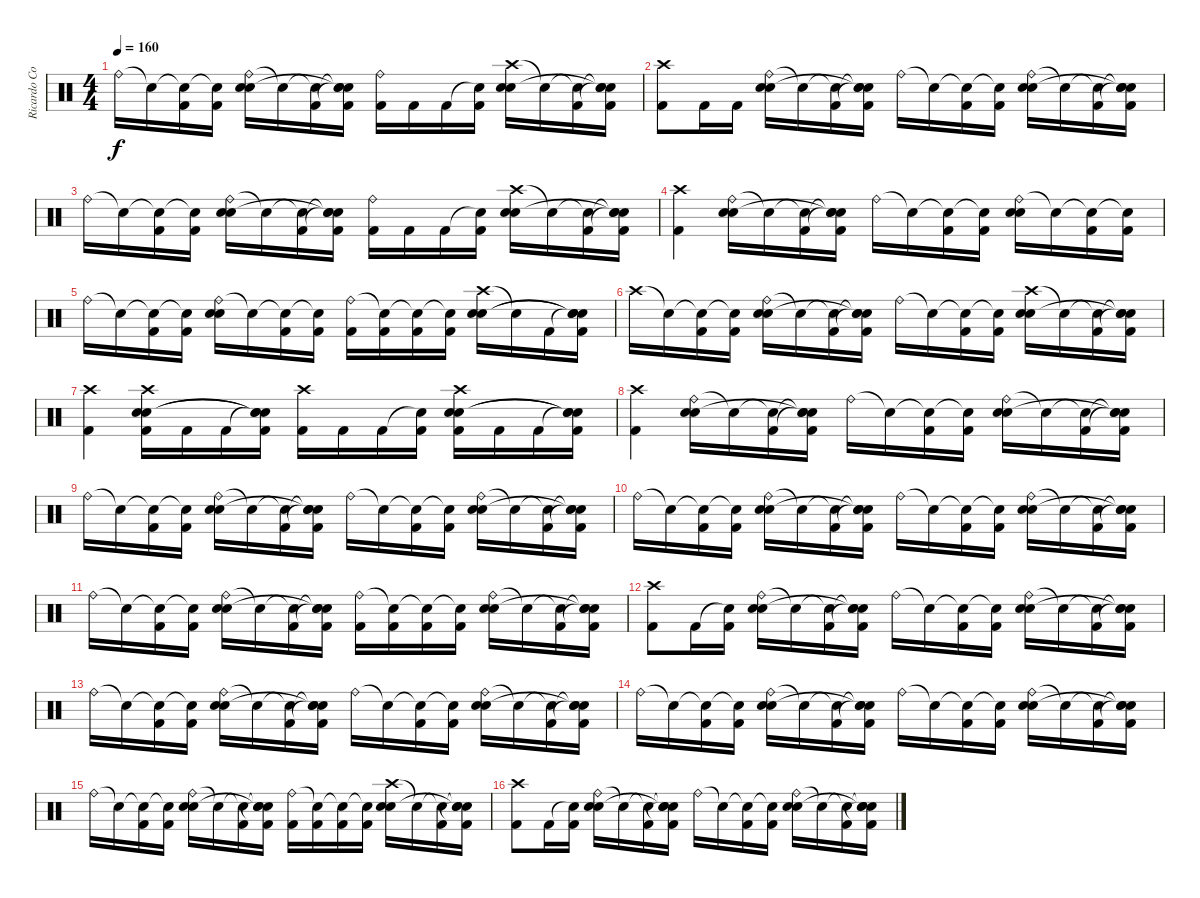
\track ("Ricardo Confessori" "Ricardo Co") {instrument percussion}
\staff {score}
\articulation defaults
\ts (4 4)
\tempo 160
\clef neutral
\ks c "Ride (bell)".16{dy f} "Snare (hit)"{t}.16
("Snare (hit)"{t} "Kick (hit) 2").16 ("Snare (hit)"{t} "Kick (hit) 2").16 ("Ride (bell)" "Electric Snare (hit)" "Snare (hit) 2").16 "Snare (hit)"{t}.16 ("Snare (hit)"{t} "Kick (hit) 2").16 ("Snare (hit)"{t} "Snare (hit)"{t} "Snare (hit)"{t} "Kick (hit) 2").16 ("Ride (bell)" "Kick (hit) 2").16 "Kick (hit) 2".16 "Kick (hit) 2".16 ("Snare (hit)"{t} "Kick (hit) 2").16 ("Crash high (hit)" "Electric Snare (hit)" "Snare (hit) 2").16 "Snare (hit)"{t}.16 ("Snare (hit)"{t} "Kick (hit) 2").16 ("Snare (hit)"{t} "Snare (hit)"{t} "Snare (hit)"{t} "Kick (hit) 2").16 |
("Crash high (hit)" "Kick (hit) 2").8 "Kick (hit) 2".16 "Kick (hit) 2".16 ("Ride (bell)" "Electric Snare (hit)" "Snare (hit) 2").16 "Snare (hit)"{t}.16 ("Snare (hit)"{t} "Kick (hit) 2").16 ("Snare (hit)"{t} "Snare (hit)"{t} "Snare (hit)"{t} "Kick (hit) 2").16 "Ride (bell)".16 "Snare (hit)"{t}.16 ("Snare (hit)"{t} "Kick (hit) 2").16 ("Snare (hit)"{t} "Kick (hit) 2").16 ("Ride (bell)" "Electric Snare (hit)" "Snare (hit) 2").16 "Snare (hit)"{t}.16 ("Snare (hit)"{t} "Kick (hit) 2").16 ("Snare (hit)"{t} "Snare (hit)"{t} "Snare (hit)"{t} "Kick (hit) 2").16 |
"Ride (bell)".16 "Snare (hit)"{t}.16 ("Snare (hit)"{t} "Kick (hit) 2").16 ("Snare (hit)"{t} "Kick (hit) 2").16 ("Ride (bell)" "Electric Snare (hit)" "Snare (hit) 2").16 "Snare (hit)"{t}.16 ("Snare (hit)"{t} "Kick (hit) 2").16 ("Snare (hit)"{t} "Snare (hit)"{t} "Snare (hit)"{t} "Kick (hit) 2").16 ("Ride (bell)" "Kick (hit) 2").16 "Kick (hit) 2".16 "Kick (hit) 2".16 ("Snare (hit)"{t} "Kick (hit) 2").16 ("Crash high (hit)" "Electric Snare (hit)" "Snare (hit) 2").16 "Snare (hit)"{t}.16 ("Snare (hit)"{t} "Kick (hit) 2").16 ("Snare (hit)"{t} "Snare (hit)"{t} "Snare (hit)"{t} "Kick (hit) 2").16 |
("Crash high (hit)" "Kick (hit) 2").4 ("Ride (bell)" "Electric Snare (hit)" "Snare (hit) 2").16 "Snare (hit)"{t}.16 ("Snare (hit)"{t} "Kick (hit) 2").16 ("Snare (hit)"{t} "Snare (hit)"{t} "Snare (hit)"{t} "Kick (hit) 2").16 "Ride (bell)".16 "Snare (hit)"{t}.16 ("Snare (hit)"{t} "Kick (hit) 2").16 ("Snare (hit)"{t} "Kick (hit) 2").16 ("Ride (bell)" "Electric Snare (hit)" "Snare (hit) 2").16 "Snare (hit)"{t}.16 ("Snare (hit)"{t} "Kick (hit) 2").16 ("Snare (hit)"{t} "Kick (hit) 2").16 |
"Ride (bell)".16 "Snare (hit)"{t}.16 ("Snare (hit)"{t} "Kick (hit) 2").16 ("Snare (hit)"{t} "Kick (hit) 2").16 ("Ride (bell)" "Electric Snare (hit)" "Snare (hit) 2").16 "Snare (hit)"{t}.16 ("Snare (hit)"{t} "Kick (hit) 2").16 ("Snare (hit)"{t} "Kick (hit) 2").16 ("Ride (bell)" "Kick (hit) 2").16 ("Snare (hit)"{t} "Kick (hit) 2").16 ("Snare (hit)"{t} "Kick (hit) 2").16 ("Snare (hit)"{t} "Kick (hit) 2").16 ("Crash high (hit)" "Electric Snare (hit)" "Snare (hit) 2").16 "Snare (hit)"{t}.16 "Kick (hit) 2".16 ("Snare (hit)"{t} "Snare (hit)"{t} "Snare (hit)"{t} "Kick (hit) 2").16 |
"Crash high (hit)".16 "Snare (hit)"{t}.16 ("Snare (hit)"{t} "Kick (hit) 2").16 ("Snare (hit)"{t} "Kick (hit) 2").16 ("Ride (bell)" "Electric Snare (hit)" "Snare (hit) 2").16 "Snare (hit)"{t}.16 ("Snare (hit)"{t} "Kick (hit) 2").16 ("Snare (hit)"{t} "Snare (hit)"{t} "Snare (hit)"{t} "Kick (hit) 2").16 "Ride (bell)".16 "Snare (hit)"{t}.16 ("Snare (hit)"{t} "Kick (hit) 2").16 ("Snare (hit)"{t} "Kick (hit) 2").16 ("Crash high (hit)" "Electric Snare (hit)" "Snare (hit) 2").16 "Snare (hit)"{t}.16 ("Snare (hit)"{t} "Kick (hit) 2").16 ("Snare (hit)"{t} "Snare (hit)"{t} "Snare (hit)"{t} "Kick (hit) 2").16 |
("Crash high (hit)" "Kick (hit) 2").4 ("Crash high (hit)" "Electric Snare (hit)" "Snare (hit) 2" "Kick (hit) 2").16 "Kick (hit) 2".16 "Kick (hit) 2".16 ("Snare (hit)"{t} "Snare (hit)"{t} "Snare (hit)"{t} "Kick (hit) 2").16 ("Crash high (hit)" "Kick (hit) 2").16 "Kick (hit) 2".16 "Kick (hit) 2".16 ("Snare (hit)"{t} "Kick (hit) 2").16 ("Crash high (hit)" "Electric Snare (hit)" "Snare (hit) 2" "Kick (hit) 2").16 "Kick (hit) 2".16 "Kick (hit) 2".16 ("Snare (hit)"{t} "Snare (hit)"{t} "Snare (hit)"{t} "Kick (hit) 2").16 |
("Crash high (hit)" "Kick (hit) 2").4 ("Ride (bell)" "Electric Snare (hit)" "Snare (hit) 2").16 "Snare (hit)"{t}.16 ("Snare (hit)"{t} "Kick (hit) 2").16 ("Snare (hit)"{t} "Snare (hit)"{t} "Snare (hit)"{t} "Kick (hit) 2").16 "Ride (bell)".16 "Snare (hit)"{t}.16 ("Snare (hit)"{t} "Kick (hit) 2").16 ("Snare (hit)"{t} "Kick (hit) 2").16 ("Ride (bell)" "Electric Snare (hit)" "Snare (hit) 2").16 "Snare (hit)"{t}.16 ("Snare (hit)"{t} "Kick (hit) 2").16 ("Snare (hit)"{t} "Snare (hit)"{t} "Snare (hit)"{t} "Kick (hit) 2").16 |
"Ride (bell)".16 "Snare (hit)"{t}.16 ("Snare (hit)"{t} "Kick (hit) 2").16 ("Snare (hit)"{t} "Kick (hit) 2").16 ("Ride (bell)" "Electric Snare (hit)" "Snare (hit) 2").16 "Snare (hit)"{t}.16 ("Snare (hit)"{t} "Kick (hit) 2").16 ("Snare (hit)"{t} "Snare (hit)"{t} "Snare (hit)"{t} "Kick (hit) 2").16 "Ride (bell)".16 "Snare (hit)"{t}.16 ("Snare (hit)"{t} "Kick (hit) 2").16 ("Snare (hit)"{t} "Kick (hit) 2").16 ("Ride (bell)" "Electric Snare (hit)" "Snare (hit) 2").16 "Snare (hit)"{t}.16 ("Snare (hit)"{t} "Kick (hit) 2").16 ("Snare (hit)"{t} "Snare (hit)"{t} "Snare (hit)"{t} "Kick (hit) 2").16 |
"Ride (bell)".16 "Snare (hit)"{t}.16 ("Snare (hit)"{t} "Kick (hit) 2").16 ("Snare (hit)"{t} "Kick (hit) 2").16 ("Ride (bell)" "Electric Snare (hit)" "Snare (hit) 2").16 "Snare (hit)"{t}.16 ("Snare (hit)"{t} "Kick (hit) 2").16 ("Snare (hit)"{t} "Snare (hit)"{t} "Snare (hit)"{t} "Kick (hit) 2").16 "Ride (bell)".16 "Snare (hit)"{t}.16 ("Snare (hit)"{t} "Kick (hit) 2").16 ("Snare (hit)"{t} "Kick (hit) 2").16 ("Ride (bell)" "Electric Snare (hit)" "Snare (hit) 2").16 "Snare (hit)"{t}.16 ("Snare (hit)"{t} "Kick (hit) 2").16 ("Snare (hit)"{t} "Snare (hit)"{t} "Snare (hit)"{t} "Kick (hit) 2").16 |
"Ride (bell)".16 "Snare (hit)"{t}.16 ("Snare (hit)"{t} "Kick (hit) 2").16 ("Snare (hit)"{t} "Kick (hit) 2").16 ("Ride (bell)" "Electric Snare (hit)" "Snare (hit) 2").16 "Snare (hit)"{t}.16 ("Snare (hit)"{t} "Kick (hit) 2").16 ("Snare (hit)"{t} "Snare (hit)"{t} "Snare (hit)"{t} "Kick (hit) 2").16 ("Ride (bell)" "Kick (hit) 2").16 ("Snare (hit)"{t} "Kick (hit) 2").16 ("Snare (hit)"{t} "Kick (hit) 2").16 ("Snare (hit)"{t} "Kick (hit) 2").16 ("Ride (bell)" "Electric Snare (hit)" "Snare (hit) 2").16 "Snare (hit)"{t}.16 ("Snare (hit)"{t} "Kick (hit) 2").16 ("Snare (hit)"{t} "Snare (hit)"{t} "Snare (hit)"{t} "Kick (hit) 2").16 |
("Crash high (hit)" "Kick (hit) 2").8 "Kick (hit) 2".16 ("Snare (hit)"{t} "Kick (hit) 2").16 ("Ride (bell)" "Electric Snare (hit)" "Snare (hit) 2").16 "Snare (hit)"{t}.16 ("Snare (hit)"{t} "Kick (hit) 2").16 ("Snare (hit)"{t} "Snare (hit)"{t} "Snare (hit)"{t} "Kick (hit) 2").16 "Ride (bell)".16 "Snare (hit)"{t}.16 ("Snare (hit)"{t} "Kick (hit) 2").16 ("Snare (hit)"{t} "Kick (hit) 2").16 ("Ride (bell)" "Electric Snare (hit)" "Snare (hit) 2").16 "Snare (hit)"{t}.16 ("Snare (hit)"{t} "Kick (hit) 2").16 ("Snare (hit)"{t} "Snare (hit)"{t} "Snare (hit)"{t} "Kick (hit) 2").16 |
"Ride (bell)".16 "Snare (hit)"{t}.16 ("Snare (hit)"{t} "Kick (hit) 2").16 ("Snare (hit)"{t} "Kick (hit) 2").16 ("Ride (bell)" "Electric Snare (hit)" "Snare (hit) 2").16 "Snare (hit)"{t}.16 ("Snare (hit)"{t} "Kick (hit) 2").16 ("Snare (hit)"{t} "Snare (hit)"{t} "Snare (hit)"{t} "Kick (hit) 2").16 "Ride (bell)".16 "Snare (hit)"{t}.16 ("Snare (hit)"{t} "Kick (hit) 2").16 ("Snare (hit)"{t} "Kick (hit) 2").16 ("Ride (bell)" "Electric Snare (hit)" "Snare (hit) 2").16 "Snare (hit)"{t}.16 ("Snare (hit)"{t} "Kick (hit) 2").16 ("Snare (hit)"{t} "Snare (hit)"{t} "Snare (hit)"{t} "Kick (hit) 2").16 |
"Ride (bell)".16 "Snare (hit)"{t}.16 ("Snare (hit)"{t} "Kick (hit) 2").16 ("Snare (hit)"{t} "Kick (hit) 2").16 ("Ride (bell)" "Electric Snare (hit)" "Snare (hit) 2").16 "Snare (hit)"{t}.16 ("Snare (hit)"{t} "Kick (hit) 2").16 ("Snare (hit)"{t} "Snare (hit)"{t} "Snare (hit)"{t} "Kick (hit) 2").16 "Ride (bell)".16 "Snare (hit)"{t}.16 ("Snare (hit)"{t} "Kick (hit) 2").16 ("Snare (hit)"{t} "Kick (hit) 2").16 ("Ride (bell)" "Electric Snare (hit)" "Snare (hit) 2").16 "Snare (hit)"{t}.16 ("Snare (hit)"{t} "Kick (hit) 2").16 ("Snare (hit)"{t} "Snare (hit)"{t} "Snare (hit)"{t} "Kick (hit) 2").16 |
"Ride (bell)".16 "Snare (hit)"{t}.16 ("Snare (hit)"{t} "Kick (hit) 2").16 ("Snare (hit)"{t} "Kick (hit) 2").16 ("Ride (bell)" "Electric Snare (hit)" "Snare (hit) 2").16 "Snare (hit)"{t}.16 ("Snare (hit)"{t} "Kick (hit) 2").16 ("Snare (hit)"{t} "Snare (hit)"{t} "Snare (hit)"{t} "Kick (hit) 2").16 ("Ride (bell)" "Kick (hit) 2").16 ("Snare (hit)"{t} "Kick (hit) 2").16 ("Snare (hit)"{t} "Kick (hit) 2").16 ("Snare (hit)"{t} "Kick (hit) 2").16 ("Crash high (hit)" "Electric Snare (hit)" "Snare (hit) 2").16 "Snare (hit)"{t}.16 ("Snare (hit)"{t} "Kick (hit) 2").16 ("Snare (hit)"{t} "Snare (hit)"{t} "Snare (hit)"{t} "Kick (hit) 2").16 |
("Crash high (hit)" "Kick (hit) 2").8 "Kick (hit) 2".16 ("Snare (hit)"{t} "Kick (hit) 2").16 ("Ride (bell)" "Electric Snare (hit)" "Snare (hit) 2").16 "Snare (hit)"{t}.16 ("Snare (hit)"{t} "Kick (hit) 2").16 ("Snare (hit)"{t} "Snare (hit)"{t} "Snare (hit)"{t} "Kick (hit) 2").16 "Ride (bell)".16 "Snare (hit)"{t}.16 ("Snare (hit)"{t} "Kick (hit) 2").16 ("Snare (hit)"{t} "Kick (hit) 2").16 ("Ride (bell)" "Electric Snare (hit)" "Snare (hit) 2").16 "Snare (hit)"{t}.16 ("Snare (hit)"{t} "Kick (hit) 2").16 ("Snare (hit)"{t} "Snare (hit)"{t} "Snare (hit)"{t} "Kick (hit) 2").16
